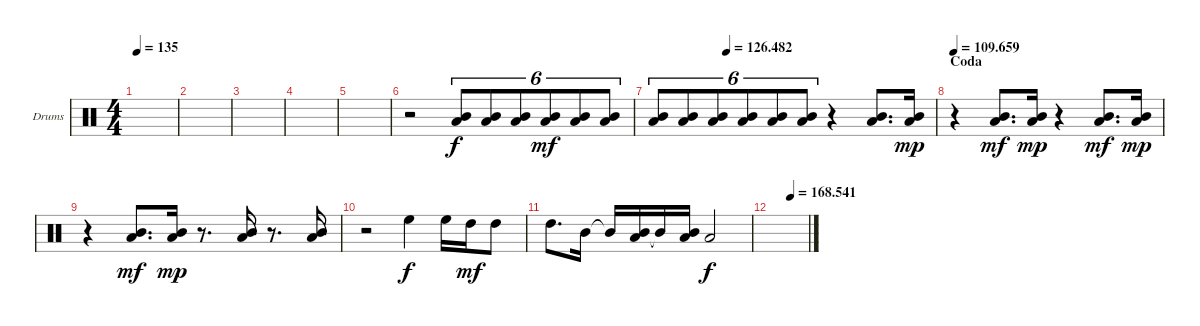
\bracketExtendMode groupsimilarinstruments
\firstSystemTrackNameOrientation horizontal
\otherSystemsTrackNameOrientation horizontal
\track ("Tom" "Drums") {instrument percussion}
\staff {score}
\articulation defaults
\ts (4 4)
\tempo 135
\clef neutral
\ks c
|
|
|
|
|
r.2 ("Low Tom (hit)" "Mid Tom (hit)").8{tu (6 4)} ("Low Tom (hit)" "Mid Tom (hit)").8{tu (6 4)} ("Low Tom (hit)" "Mid Tom (hit)").8{tu (6 4)} ("Low Tom (hit)" "Mid Tom (hit)").8{tu (6 4) dy mf} ("Low Tom (hit)" "Mid Tom (hit)").8{tu (6 4)} ("Low Tom (hit)" "Mid Tom (hit)").8{tu (6 4)} |
\tempo (126.482 0.25)
("Low Tom (hit)" "Mid Tom (hit)").8{tu (6 4)} ("Low Tom (hit)" "Mid Tom (hit)").8{tu (6 4)} ("Mid Tom (hit)" "Low Tom (hit)").8{tu (6 4)} ("Low Tom (hit)" "Mid Tom (hit)").8{tu (6 4)} ("Low Tom (hit)" "Mid Tom (hit)").8{tu (6 4)} ("Low Tom (hit)" "Mid Tom (hit)").8{tu (6 4)} r.4 ("Low Tom (hit)" "Mid Tom (hit)").8{d} ("Low Tom (hit)" "Mid Tom (hit)").16{dy mp} |
\section ("" "Coda")
\tempo
109.659 r.4 ("Low Tom (hit)" "Mid Tom (hit)").8{d dy mf} ("Low Tom (hit)" "Mid Tom (hit)").16{dy mp} r.4 ("Low Tom (hit)" "Mid Tom (hit)").8{d dy mf} ("Low Tom (hit)" "Mid Tom (hit)").16{dy mp} |
r.4 ("Low Tom (hit)" "Mid Tom (hit)").8{d dy mf} ("Low Tom (hit)" "Mid Tom (hit)").16{dy mp} r.8{d} ("Low Tom (hit)" "Mid Tom (hit)").16 r.8{d} ("Low Tom (hit)" "Mid Tom (hit)").16 |
r.2 "High Floor Tom (hit)".4{dy f} "High Floor Tom (hit)".16 "High Tom (hit)".16{dy mf} "High Tom (hit)".8 |
"High Tom (hit)".8{d} "Mid Tom (hit)".16 "Mid Tom (hit)"{t}.16 ("Mid Tom (hit)" "Low Tom (hit)").16 "Mid Tom (hit)"{t}.16 ("Low Tom (hit)" "Mid Tom (hit)").16 "Low Tom (hit)".2{dy f} |
\tempo (168.541 0.53125)
